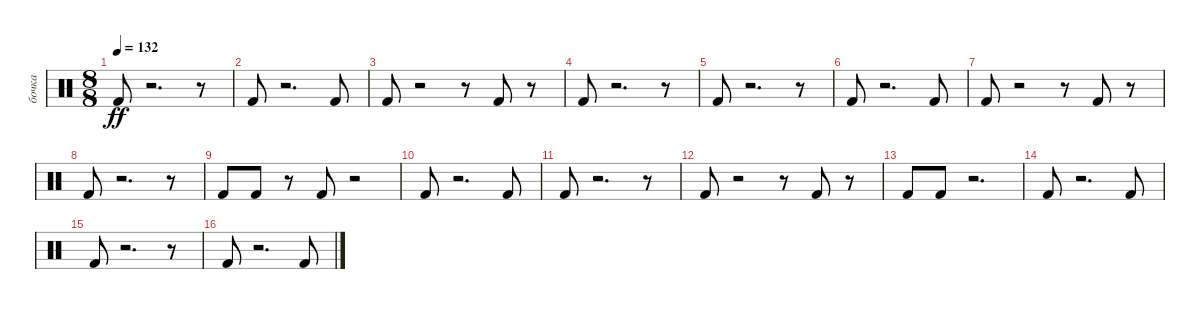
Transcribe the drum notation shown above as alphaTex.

\track ("бочка" "бочка") {instrument percussion}
\staff {score}
\articulation defaults
\ts (8 8)
\tempo 132
\clef neutral
\ks c "Kick (hit) 2".8{dy ff}
r.2{d} r.8 |
"Kick (hit) 2".8 r.2{d} "Kick (hit) 2".8 |
"Kick (hit) 2".8 r.2 r.8 "Kick (hit) 2".8 r.8 |
"Kick (hit) 2".8 r.2{d} r.8 |
"Kick (hit) 2".8 r.2{d} r.8 |
"Kick (hit) 2".8 r.2{d} "Kick (hit) 2".8 |
"Kick (hit) 2".8 r.2 r.8 "Kick (hit) 2".8 r.8 |
"Kick (hit) 2".8 r.2{d} r.8 |
"Kick (hit) 2".8 "Kick (hit) 2".8 r.8 "Kick (hit) 2".8 r.2 |
"Kick (hit) 2".8 r.2{d} "Kick (hit) 2".8 |
"Kick (hit) 2".8 r.2{d} r.8 |
"Kick (hit) 2".8 r.2 r.8 "Kick (hit) 2".8 r.8 |
"Kick (hit) 2".8 "Kick (hit) 2".8 r.2{d} |
"Kick (hit) 2".8 r.2{d} "Kick (hit) 2".8 |
"Kick (hit) 2".8 r.2{d} r.8 |
"Kick (hit) 2".8 r.2{d} "Kick (hit) 2".8
